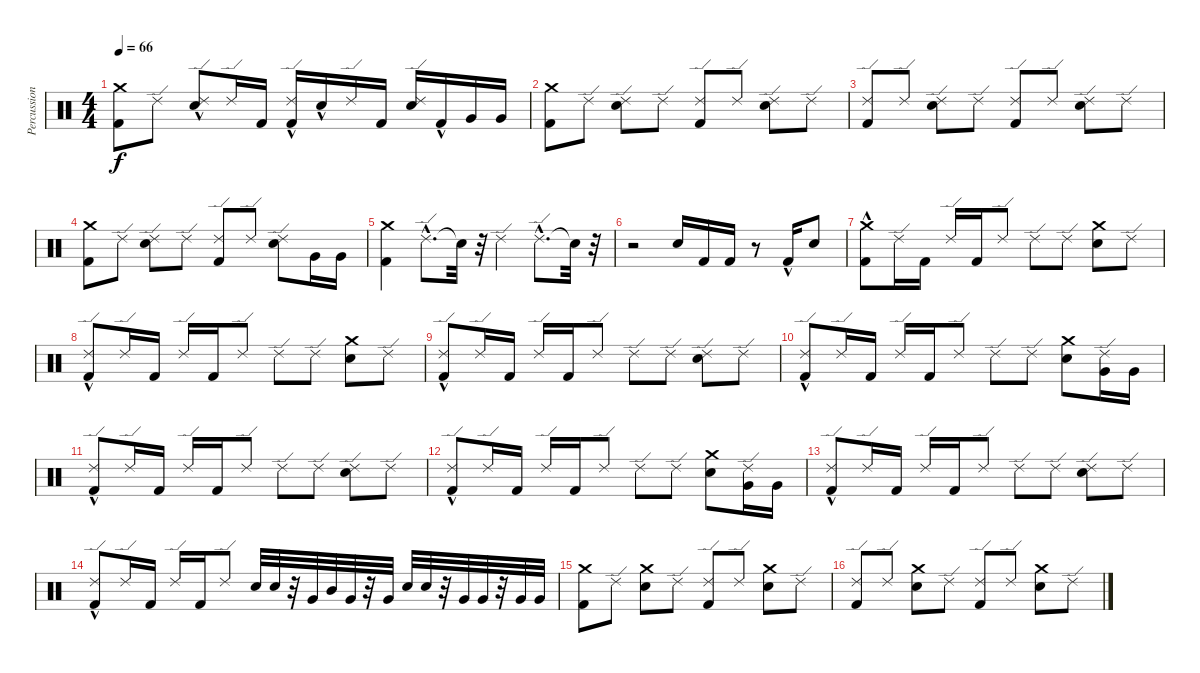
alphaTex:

\track ("Percussioni" "Percussion") {instrument percussion}
\staff {score}
\articulation defaults
\ts (4 4)
\tempo 66
\clef neutral
\ks c
("Kick (hit) 2" "Crash medium (hit)").8{dy f} "Ride (edge) 2".8 ("Snare (hit) 2"{hac} "Ride (edge) 2").8 "Ride (edge) 2".16 "Kick (hit) 2".16 ("Kick (hit) 2"{hac} "Ride (edge) 2").16 "Snare (hit) 2"{hac}.16 "Ride (edge) 2".16 "Kick (hit) 2".16 ("Snare (hit) 2" "Ride (edge) 2").16 "Kick (hit) 2"{hac}.16 "Very Low Tom (hit)".16 "Very Low Tom (hit)".16 |
("Kick (hit) 2" "Crash medium (hit)").8 "Ride (edge) 2".8 ("Snare (hit) 2" "Ride (edge) 2").8 "Ride (edge) 2".8 ("Kick (hit) 2" "Ride (edge) 2").8 "Ride (edge) 2".8 ("Snare (hit) 2" "Ride (edge) 2").8 "Ride (edge) 2".8 |
("Ride (edge) 2" "Kick (hit) 2").8 "Ride (edge) 2".8 ("Ride (edge) 2" "Snare (hit) 2").8 "Ride (edge) 2".8 ("Ride (edge) 2" "Kick (hit) 2").8 "Ride (edge) 2".8 ("Ride (edge) 2" "Snare (hit) 2").8 "Ride (edge) 2".8 |
("Crash medium (hit)" "Kick (hit) 2").8 "Ride (edge) 2".8 ("Ride (edge) 2" "Snare (hit) 2").8 "Ride (edge) 2".8 ("Ride (edge) 2" "Kick (hit) 2").8 "Ride (edge) 2".8 ("Ride (edge) 2" "Snare (hit) 2").8 "Very Low Tom (hit)".16 "Very Low Tom (hit)".16 |
("Kick (hit) 2" "Crash medium (hit)").4 "Ride (edge) 2"{hac}.8{d} "Snare (hit)"{t}.32 r.32 "Ride (edge) 2".4 "Ride (edge) 2"{hac}.8{d} "Snare (hit)"{t}.32 r.32 |
r.2 "Snare (hit) 2".16 "Kick (hit) 2".16 "Kick (hit) 2".16 r.8 "Kick (hit) 2"{hac}.16 "Snare (hit) 2".8 |
("Crash medium (hit)" "Kick (hit) 2"{hac}).8 "Ride (edge) 2".16 "Kick (hit) 2".16 "Ride (edge) 2".16 "Kick (hit) 2".16 "Ride (edge) 2".8 "Ride (edge) 2".8 "Ride (edge) 2".8 ("Crash medium (hit)" "Snare (hit) 2").8 "Ride (edge) 2".8 |
("Ride (edge) 2" "Kick (hit) 2"{hac}).8 "Ride (edge) 2".16 "Kick (hit) 2".16 "Ride (edge) 2".16 "Kick (hit) 2".16 "Ride (edge) 2".8 "Ride (edge) 2".8 "Ride (edge) 2".8 ("Crash medium (hit)" "Snare (hit) 2").8 "Ride (edge) 2".8 |
("Ride (edge) 2" "Kick (hit) 2"{hac}).8 "Ride (edge) 2".16 "Kick (hit) 2".16 "Ride (edge) 2".16 "Kick (hit) 2".16 "Ride (edge) 2".8 "Ride (edge) 2".8 "Ride (edge) 2".8 ("Ride (edge) 2" "Snare (hit) 2").8 "Ride (edge) 2".8 |
("Ride (edge) 2" "Kick (hit) 2"{hac}).8 "Ride (edge) 2".16 "Kick (hit) 2".16 "Ride (edge) 2".16 "Kick (hit) 2".16 "Ride (edge) 2".8 "Ride (edge) 2".8 "Ride (edge) 2".8 ("Crash medium (hit)" "Snare (hit) 2").8 ("Very Low Tom (hit)" "Ride (edge) 2").16 "Very Low Tom (hit)".16 |
("Ride (edge) 2" "Kick (hit) 2"{hac}).8 "Ride (edge) 2".16 "Kick (hit) 2".16 "Ride (edge) 2".16 "Kick (hit) 2".16 "Ride (edge) 2".8 "Ride (edge) 2".8 "Ride (edge) 2".8 ("Ride (edge) 2" "Snare (hit) 2").8 "Ride (edge) 2".8 |
("Ride (edge) 2" "Kick (hit) 2"{hac}).8 "Ride (edge) 2".16 "Kick (hit) 2".16 "Ride (edge) 2".16 "Kick (hit) 2".16 "Ride (edge) 2".8 "Ride (edge) 2".8 "Ride (edge) 2".8 ("Crash medium (hit)" "Snare (hit) 2").8 ("Very Low Tom (hit)" "Ride (edge) 2").16 "Very Low Tom (hit)".16 |
("Ride (edge) 2" "Kick (hit) 2"{hac}).8 "Ride (edge) 2".16 "Kick (hit) 2".16 "Ride (edge) 2".16 "Kick (hit) 2".16 "Ride (edge) 2".8 "Ride (edge) 2".8 "Ride (edge) 2".8 ("Ride (edge) 2" "Snare (hit) 2").8 "Ride (edge) 2".8 |
("Ride (edge) 2" "Kick (hit) 2"{hac}).8 "Ride (edge) 2".16 "Kick (hit) 2".16 "Ride (edge) 2".16 "Kick (hit) 2".16 "Ride (edge) 2".8 "Snare (hit) 2".32 "Snare (hit) 2".32 r.32 "Very Low Tom (hit)".32 "Mid Tom (hit)".32 "Very Low Tom (hit)".32 r.32 "Very Low Tom (hit)".32 "Snare (hit) 2".32 "Snare (hit) 2".32 r.32 "Very Low Tom (hit)".32 "Very Low Tom (hit)".32 r.32 "Very Low Tom (hit)".32 "Very Low Tom (hit)".32 |
("Crash medium (hit)" "Kick (hit) 2").8 "Ride (edge) 2".8 ("Crash medium (hit)" "Snare (hit) 2").8 "Ride (edge) 2".8 ("Ride (edge) 2" "Kick (hit) 2").8 "Ride (edge) 2".8 ("Crash medium (hit)" "Snare (hit) 2").8 "Ride (edge) 2".8 |
("Ride (edge) 2" "Kick (hit) 2").8 "Ride (edge) 2".8 ("Crash medium (hit)" "Snare (hit) 2").8 "Ride (edge) 2".8 ("Ride (edge) 2" "Kick (hit) 2").8 "Ride (edge) 2".8 ("Crash medium (hit)" "Snare (hit) 2").8 "Ride (edge) 2".8
